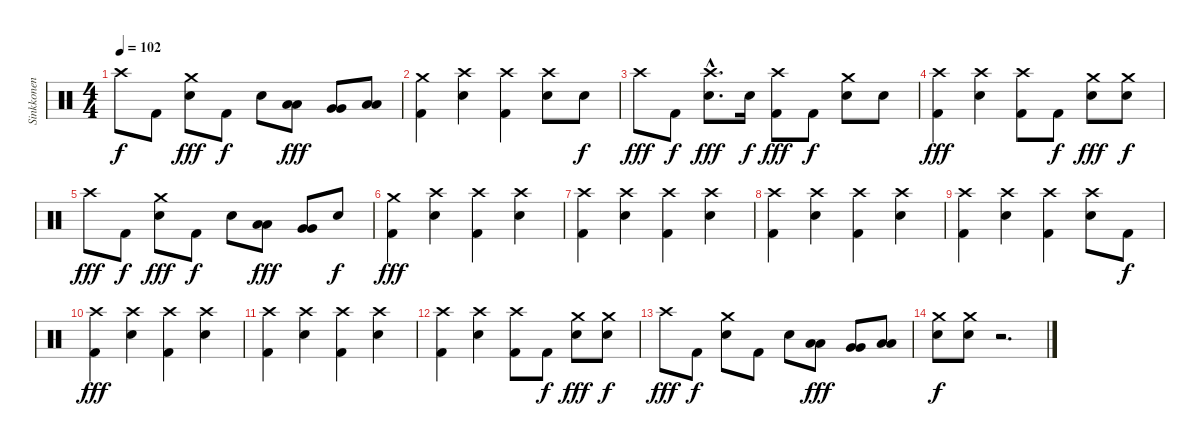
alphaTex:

\track ("Sinkkonen" "Sinkkonen") {instrument percussion}
\staff {score}
\articulation defaults
\ts (4 4)
\tempo 102
\clef neutral
\ks c "Crash high (hit)".8{dy f} "Kick (hit) 2".8
("Crash medium (hit)" "Snare (hit) 2").8{dy fff} "Kick (hit) 2".8{dy f} "Snare (hit) 2".8 ("Low Tom (hit)" "Low Tom (hit)").8{dy fff} ("Very Low Tom (hit)" "Very Low Tom (hit)").8 ("Low Floor Tom (hit)" "Low Floor Tom (hit)").8 |
("Kick (hit) 2" "Crash medium (hit)").4 ("Crash high (hit)" "Snare (hit) 2").4 ("Kick (hit) 2" "Crash high (hit)").4 ("Crash high (hit)" "Snare (hit) 2").8 "Snare (hit) 2".8{dy f} |
"Crash high (hit)".8{dy fff} "Kick (hit) 2".8{dy f} ("Crash high (hit)"{hac} "Snare (hit) 2"{hac}).8{d dy fff} "Snare (hit) 2".16{dy f} ("Kick (hit) 2" "Crash high (hit)").8{dy fff} "Kick (hit) 2".8{dy f} ("Crash medium (hit)" "Snare (hit) 2").8 "Snare (hit) 2".8 |
("Kick (hit) 2" "Crash high (hit)").4{dy fff} ("Crash high (hit)" "Snare (hit) 2").4 ("Kick (hit) 2" "Crash high (hit)").8 "Kick (hit) 2".8{dy f} ("Crash medium (hit)" "Snare (hit) 2").8{dy fff} ("Crash medium (hit)" "Snare (hit) 2").8{dy f} |
"Crash high (hit)".8{dy fff} "Kick (hit) 2".8{dy f} ("Crash medium (hit)" "Snare (hit) 2").8{dy fff} "Kick (hit) 2".8{dy f} "Snare (hit) 2".8 ("Low Tom (hit)" "Low Tom (hit)").8{dy fff} ("Very Low Tom (hit)" "Very Low Tom (hit)").8 "Snare (hit) 2".8{dy f} |
("Kick (hit) 2" "Crash medium (hit)").4{dy fff} ("Crash high (hit)" "Snare (hit) 2").4 ("Kick (hit) 2" "Crash high (hit)").4 ("Crash high (hit)" "Snare (hit) 2").4 |
("Kick (hit) 2" "Crash high (hit)").4 ("Crash high (hit)" "Snare (hit) 2").4 ("Kick (hit) 2" "Crash high (hit)").4 ("Crash high (hit)" "Snare (hit) 2").4 |
("Kick (hit) 2" "Crash high (hit)").4 ("Crash high (hit)" "Snare (hit) 2").4 ("Kick (hit) 2" "Crash high (hit)").4 ("Crash high (hit)" "Snare (hit) 2").4 |
("Kick (hit) 2" "Crash high (hit)").4 ("Crash high (hit)" "Snare (hit) 2").4 ("Kick (hit) 2" "Crash high (hit)").4 ("Crash high (hit)" "Snare (hit) 2").8 "Kick (hit) 2".8{dy f} |
("Kick (hit) 2" "Crash high (hit)").4{dy fff} ("Crash high (hit)" "Snare (hit) 2").4 ("Kick (hit) 2" "Crash high (hit)").4 ("Crash high (hit)" "Snare (hit) 2").4 |
("Kick (hit) 2" "Crash high (hit)").4 ("Crash high (hit)" "Snare (hit) 2").4 ("Kick (hit) 2" "Crash high (hit)").4 ("Crash high (hit)" "Snare (hit) 2").4 |
("Kick (hit) 2" "Crash high (hit)").4 ("Crash high (hit)" "Snare (hit) 2").4 ("Kick (hit) 2" "Crash high (hit)").8 "Kick (hit) 2".8{dy f} ("Crash medium (hit)" "Snare (hit) 2").8{dy fff} ("Crash medium (hit)" "Snare (hit) 2").8{dy f} |
"Crash high (hit)".8{dy fff} "Kick (hit) 2".8{dy f} ("Crash medium (hit)" "Snare (hit) 2").8 "Kick (hit) 2".8 "Snare (hit) 2".8 ("Low Tom (hit)" "Low Tom (hit)").8{dy fff} ("Very Low Tom (hit)" "Very Low Tom (hit)").8 ("Low Floor Tom (hit)" "Low Floor Tom (hit)").8 |
("Crash medium (hit)" "Snare (hit) 2").8{dy f} ("Crash medium (hit)" "Snare (hit) 2").8 r.2{d}
